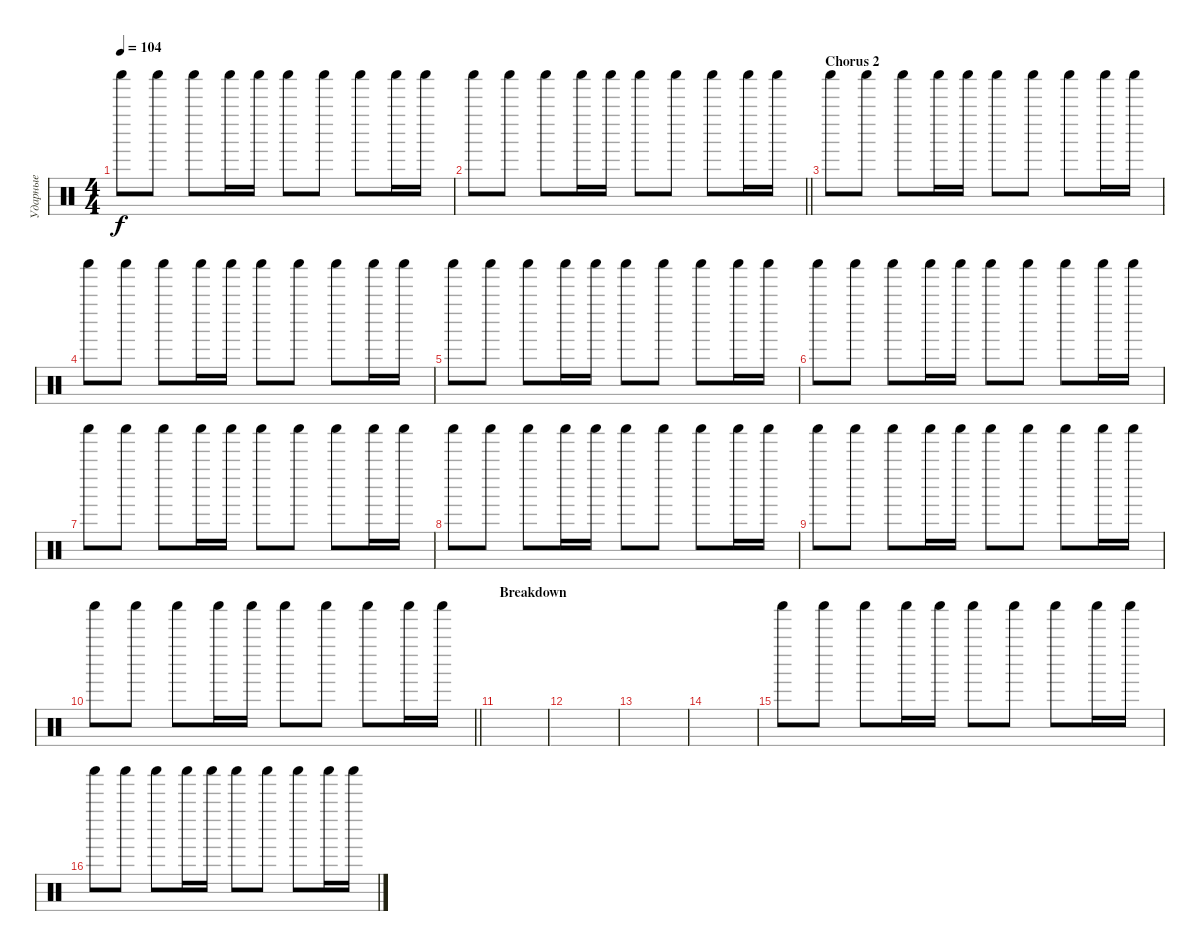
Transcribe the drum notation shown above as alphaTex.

\track ("Ударные" "Ударные") {instrument percussion}
\staff {score}
\articulation defaults
\ts (4 4)
\tempo 104
\clef neutral
\ks c "Shaker (hit)".8{dy f} "Shaker (hit)".8 "Shaker (hit)".8 "Shaker (hit)".16 "Shaker (hit)".16 "Shaker (hit)".8 "Shaker (hit)".8 "Shaker (hit)".8 "Shaker (hit)".16 "Shaker (hit)".16
|
\barLineRight lightlight "Shaker (hit)".8 "Shaker (hit)".8 "Shaker (hit)".8 "Shaker (hit)".16 "Shaker (hit)".16 "Shaker (hit)".8 "Shaker (hit)".8 "Shaker (hit)".8 "Shaker (hit)".16 "Shaker (hit)".16
|
\section ("" "Chorus 2")
"Shaker (hit)".8 "Shaker (hit)".8 "Shaker (hit)".8 "Shaker (hit)".16 "Shaker (hit)".16 "Shaker (hit)".8 "Shaker (hit)".8 "Shaker (hit)".8 "Shaker (hit)".16 "Shaker (hit)".16 |
"Shaker (hit)".8 "Shaker (hit)".8 "Shaker (hit)".8 "Shaker (hit)".16 "Shaker (hit)".16 "Shaker (hit)".8 "Shaker (hit)".8 "Shaker (hit)".8 "Shaker (hit)".16 "Shaker (hit)".16 |
"Shaker (hit)".8 "Shaker (hit)".8 "Shaker (hit)".8 "Shaker (hit)".16 "Shaker (hit)".16 "Shaker (hit)".8 "Shaker (hit)".8 "Shaker (hit)".8 "Shaker (hit)".16 "Shaker (hit)".16 |
"Shaker (hit)".8 "Shaker (hit)".8 "Shaker (hit)".8 "Shaker (hit)".16 "Shaker (hit)".16 "Shaker (hit)".8 "Shaker (hit)".8 "Shaker (hit)".8 "Shaker (hit)".16 "Shaker (hit)".16 |
"Shaker (hit)".8 "Shaker (hit)".8 "Shaker (hit)".8 "Shaker (hit)".16 "Shaker (hit)".16 "Shaker (hit)".8 "Shaker (hit)".8 "Shaker (hit)".8 "Shaker (hit)".16 "Shaker (hit)".16 |
"Shaker (hit)".8 "Shaker (hit)".8 "Shaker (hit)".8 "Shaker (hit)".16 "Shaker (hit)".16 "Shaker (hit)".8 "Shaker (hit)".8 "Shaker (hit)".8 "Shaker (hit)".16 "Shaker (hit)".16 |
"Shaker (hit)".8 "Shaker (hit)".8 "Shaker (hit)".8 "Shaker (hit)".16 "Shaker (hit)".16 "Shaker (hit)".8 "Shaker (hit)".8 "Shaker (hit)".8 "Shaker (hit)".16 "Shaker (hit)".16 |
\barLineRight lightlight "Shaker (hit)".8 "Shaker (hit)".8 "Shaker (hit)".8 "Shaker (hit)".16 "Shaker (hit)".16 "Shaker (hit)".8 "Shaker (hit)".8 "Shaker (hit)".8 "Shaker (hit)".16 "Shaker (hit)".16
|
\section ("" "Breakdown")
|
|
|
|
"Shaker (hit)".8 "Shaker (hit)".8 "Shaker (hit)".8 "Shaker (hit)".16 "Shaker (hit)".16 "Shaker (hit)".8 "Shaker (hit)".8 "Shaker (hit)".8 "Shaker (hit)".16 "Shaker (hit)".16 |
"Shaker (hit)".8 "Shaker (hit)".8 "Shaker (hit)".8 "Shaker (hit)".16 "Shaker (hit)".16 "Shaker (hit)".8 "Shaker (hit)".8 "Shaker (hit)".8 "Shaker (hit)".16 "Shaker (hit)".16
